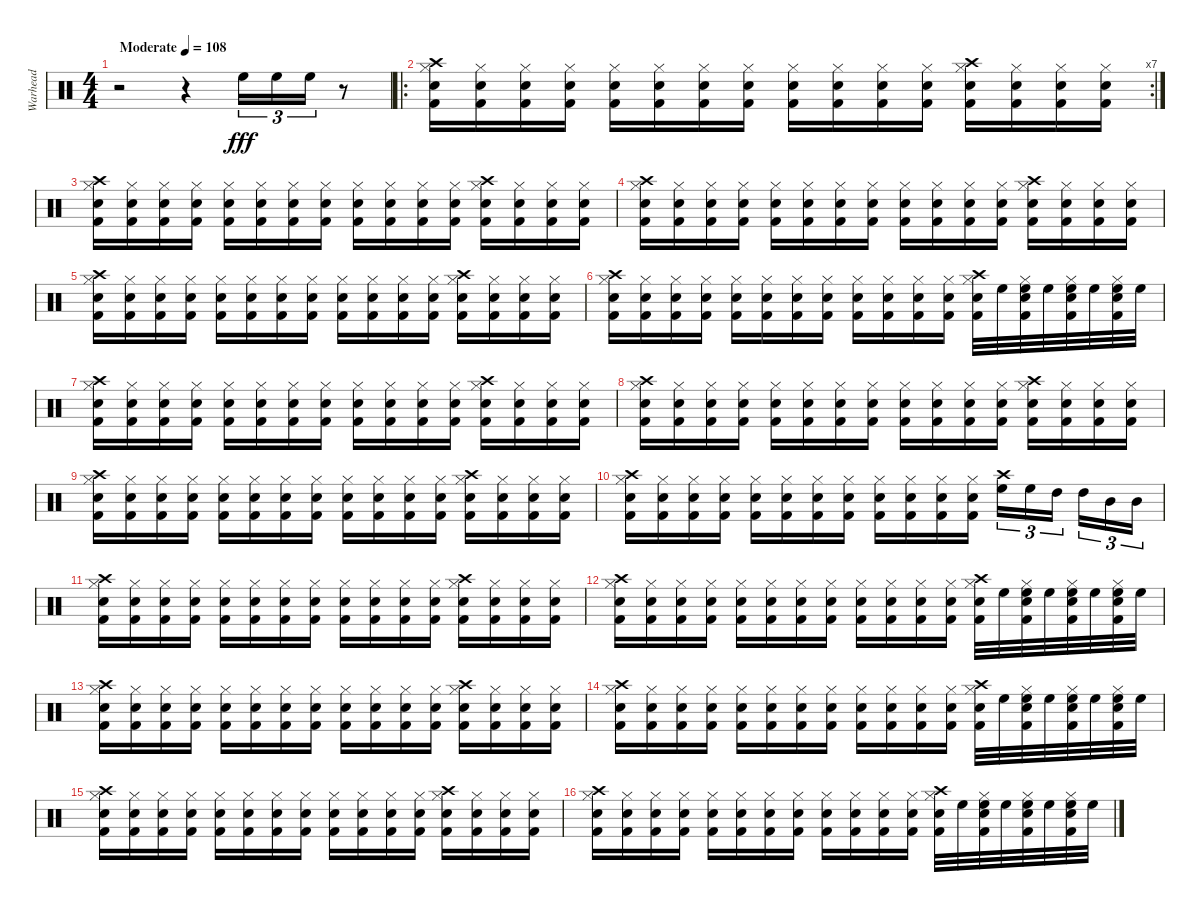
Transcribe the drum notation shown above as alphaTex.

\track ("Warhead" "Warhead") {instrument percussion}
\staff {score}
\articulation defaults
\ts (4 4)
\tempo (108 "Moderate")
\tempo 115
\tempo (108 "Moderate")
\clef neutral
\ks c
r.2{dy fff} r.4 "High Floor Tom (hit)".16{tu (3 2)} "High Floor Tom (hit)".16{tu (3 2)} "High Floor Tom (hit)".16{tu (3 2)} r.8 |
\ro
\rc 7
("Kick (hit) 2" "Electric Snare (hit)" "Crash high (hit)" "Hi-Hat (closed)").16 ("Kick (hit) 2" "Electric Snare (hit)" "Hi-Hat (closed)").16 ("Kick (hit) 2" "Electric Snare (hit)" "Hi-Hat (closed)").16 ("Kick (hit) 2" "Electric Snare (hit)" "Hi-Hat (closed)").16 ("Kick (hit) 2" "Electric Snare (hit)" "Hi-Hat (closed)").16 ("Kick (hit) 2" "Electric Snare (hit)" "Hi-Hat (closed)").16 ("Kick (hit) 2" "Electric Snare (hit)" "Hi-Hat (closed)").16 ("Kick (hit) 2" "Electric Snare (hit)" "Hi-Hat (closed)").16 ("Kick (hit) 2" "Electric Snare (hit)" "Hi-Hat (closed)").16 ("Kick (hit) 2" "Electric Snare (hit)" "Hi-Hat (closed)").16 ("Kick (hit) 2" "Electric Snare (hit)" "Hi-Hat (closed)").16 ("Kick (hit) 2" "Electric Snare (hit)" "Hi-Hat (closed)").16 ("Kick (hit) 2" "Electric Snare (hit)" "Crash high (hit)" "Hi-Hat (closed)").16 ("Kick (hit) 2" "Electric Snare (hit)" "Hi-Hat (closed)").16 ("Kick (hit) 2" "Electric Snare (hit)" "Hi-Hat (closed)").16 ("Kick (hit) 2" "Electric Snare (hit)" "Hi-Hat (closed)").16 |
("Kick (hit) 2" "Electric Snare (hit)" "Crash high (hit)" "Hi-Hat (closed)").16 ("Kick (hit) 2" "Electric Snare (hit)" "Hi-Hat (closed)").16 ("Kick (hit) 2" "Electric Snare (hit)" "Hi-Hat (closed)").16 ("Kick (hit) 2" "Electric Snare (hit)" "Hi-Hat (closed)").16 ("Kick (hit) 2" "Electric Snare (hit)" "Hi-Hat (closed)").16 ("Kick (hit) 2" "Electric Snare (hit)" "Hi-Hat (closed)").16 ("Kick (hit) 2" "Electric Snare (hit)" "Hi-Hat (closed)").16 ("Kick (hit) 2" "Electric Snare (hit)" "Hi-Hat (closed)").16 ("Kick (hit) 2" "Electric Snare (hit)" "Hi-Hat (closed)").16 ("Kick (hit) 2" "Electric Snare (hit)" "Hi-Hat (closed)").16 ("Kick (hit) 2" "Electric Snare (hit)" "Hi-Hat (closed)").16 ("Kick (hit) 2" "Electric Snare (hit)" "Hi-Hat (closed)").16 ("Kick (hit) 2" "Electric Snare (hit)" "Crash high (hit)" "Hi-Hat (closed)").16 ("Kick (hit) 2" "Electric Snare (hit)" "Hi-Hat (closed)").16 ("Kick (hit) 2" "Electric Snare (hit)" "Hi-Hat (closed)").16 ("Kick (hit) 2" "Electric Snare (hit)" "Hi-Hat (closed)").16 |
("Kick (hit) 2" "Electric Snare (hit)" "Crash high (hit)" "Hi-Hat (closed)").16 ("Kick (hit) 2" "Electric Snare (hit)" "Hi-Hat (closed)").16 ("Kick (hit) 2" "Electric Snare (hit)" "Hi-Hat (closed)").16 ("Kick (hit) 2" "Electric Snare (hit)" "Hi-Hat (closed)").16 ("Kick (hit) 2" "Electric Snare (hit)" "Hi-Hat (closed)").16 ("Kick (hit) 2" "Electric Snare (hit)" "Hi-Hat (closed)").16 ("Kick (hit) 2" "Electric Snare (hit)" "Hi-Hat (closed)").16 ("Kick (hit) 2" "Electric Snare (hit)" "Hi-Hat (closed)").16 ("Kick (hit) 2" "Electric Snare (hit)" "Hi-Hat (closed)").16 ("Kick (hit) 2" "Electric Snare (hit)" "Hi-Hat (closed)").16 ("Kick (hit) 2" "Electric Snare (hit)" "Hi-Hat (closed)").16 ("Kick (hit) 2" "Electric Snare (hit)" "Hi-Hat (closed)").16 ("Kick (hit) 2" "Electric Snare (hit)" "Crash high (hit)" "Hi-Hat (closed)").16 ("Kick (hit) 2" "Electric Snare (hit)" "Hi-Hat (closed)").16 ("Kick (hit) 2" "Electric Snare (hit)" "Hi-Hat (closed)").16 ("Kick (hit) 2" "Electric Snare (hit)" "Hi-Hat (closed)").16 |
("Kick (hit) 2" "Electric Snare (hit)" "Crash high (hit)" "Hi-Hat (closed)").16 ("Kick (hit) 2" "Electric Snare (hit)" "Hi-Hat (closed)").16 ("Kick (hit) 2" "Electric Snare (hit)" "Hi-Hat (closed)").16 ("Kick (hit) 2" "Electric Snare (hit)" "Hi-Hat (closed)").16 ("Kick (hit) 2" "Electric Snare (hit)" "Hi-Hat (closed)").16 ("Kick (hit) 2" "Electric Snare (hit)" "Hi-Hat (closed)").16 ("Kick (hit) 2" "Electric Snare (hit)" "Hi-Hat (closed)").16 ("Kick (hit) 2" "Electric Snare (hit)" "Hi-Hat (closed)").16 ("Kick (hit) 2" "Electric Snare (hit)" "Hi-Hat (closed)").16 ("Kick (hit) 2" "Electric Snare (hit)" "Hi-Hat (closed)").16 ("Kick (hit) 2" "Electric Snare (hit)" "Hi-Hat (closed)").16 ("Kick (hit) 2" "Electric Snare (hit)" "Hi-Hat (closed)").16 ("Kick (hit) 2" "Electric Snare (hit)" "Crash high (hit)" "Hi-Hat (closed)").16 ("Kick (hit) 2" "Electric Snare (hit)" "Hi-Hat (closed)").16 ("Kick (hit) 2" "Electric Snare (hit)" "Hi-Hat (closed)").16 ("Kick (hit) 2" "Electric Snare (hit)" "Hi-Hat (closed)").16 |
("Kick (hit) 2" "Electric Snare (hit)" "Crash high (hit)" "Hi-Hat (closed)").16 ("Kick (hit) 2" "Electric Snare (hit)" "Hi-Hat (closed)").16 ("Kick (hit) 2" "Electric Snare (hit)" "Hi-Hat (closed)").16 ("Kick (hit) 2" "Electric Snare (hit)" "Hi-Hat (closed)").16 ("Kick (hit) 2" "Electric Snare (hit)" "Hi-Hat (closed)").16 ("Kick (hit) 2" "Electric Snare (hit)" "Hi-Hat (closed)").16 ("Kick (hit) 2" "Electric Snare (hit)" "Hi-Hat (closed)").16 ("Kick (hit) 2" "Electric Snare (hit)" "Hi-Hat (closed)").16 ("Kick (hit) 2" "Electric Snare (hit)" "Hi-Hat (closed)").16 ("Kick (hit) 2" "Electric Snare (hit)" "Hi-Hat (closed)").16 ("Kick (hit) 2" "Electric Snare (hit)" "Hi-Hat (closed)").16 ("Kick (hit) 2" "Electric Snare (hit)" "Hi-Hat (closed)").16 ("Kick (hit) 2" "Electric Snare (hit)" "Crash high (hit)" "Hi-Hat (closed)").32 "High Floor Tom (hit)".32 ("Kick (hit) 2" "Electric Snare (hit)" "Hi-Hat (closed)" "High Floor Tom (hit)").32 "High Floor Tom (hit)".32 ("Kick (hit) 2" "Electric Snare (hit)" "Hi-Hat (closed)" "High Floor Tom (hit)").32 "High Floor Tom (hit)".32 ("Kick (hit) 2" "Electric Snare (hit)" "Hi-Hat (closed)" "High Floor Tom (hit)").32 "High Floor Tom (hit)".32 |
("Kick (hit) 2" "Electric Snare (hit)" "Crash high (hit)" "Hi-Hat (closed)").16 ("Kick (hit) 2" "Electric Snare (hit)" "Hi-Hat (closed)").16 ("Kick (hit) 2" "Electric Snare (hit)" "Hi-Hat (closed)").16 ("Kick (hit) 2" "Electric Snare (hit)" "Hi-Hat (closed)").16 ("Kick (hit) 2" "Electric Snare (hit)" "Hi-Hat (closed)").16 ("Kick (hit) 2" "Electric Snare (hit)" "Hi-Hat (closed)").16 ("Kick (hit) 2" "Electric Snare (hit)" "Hi-Hat (closed)").16 ("Kick (hit) 2" "Electric Snare (hit)" "Hi-Hat (closed)").16 ("Kick (hit) 2" "Electric Snare (hit)" "Hi-Hat (closed)").16 ("Kick (hit) 2" "Electric Snare (hit)" "Hi-Hat (closed)").16 ("Kick (hit) 2" "Electric Snare (hit)" "Hi-Hat (closed)").16 ("Kick (hit) 2" "Electric Snare (hit)" "Hi-Hat (closed)").16 ("Kick (hit) 2" "Electric Snare (hit)" "Crash high (hit)" "Hi-Hat (closed)").16 ("Kick (hit) 2" "Electric Snare (hit)" "Hi-Hat (closed)").16 ("Kick (hit) 2" "Electric Snare (hit)" "Hi-Hat (closed)").16 ("Kick (hit) 2" "Electric Snare (hit)" "Hi-Hat (closed)").16 |
("Kick (hit) 2" "Electric Snare (hit)" "Crash high (hit)" "Hi-Hat (closed)").16 ("Kick (hit) 2" "Electric Snare (hit)" "Hi-Hat (closed)").16 ("Kick (hit) 2" "Electric Snare (hit)" "Hi-Hat (closed)").16 ("Kick (hit) 2" "Electric Snare (hit)" "Hi-Hat (closed)").16 ("Kick (hit) 2" "Electric Snare (hit)" "Hi-Hat (closed)").16 ("Kick (hit) 2" "Electric Snare (hit)" "Hi-Hat (closed)").16 ("Kick (hit) 2" "Electric Snare (hit)" "Hi-Hat (closed)").16 ("Kick (hit) 2" "Electric Snare (hit)" "Hi-Hat (closed)").16 ("Kick (hit) 2" "Electric Snare (hit)" "Hi-Hat (closed)").16 ("Kick (hit) 2" "Electric Snare (hit)" "Hi-Hat (closed)").16 ("Kick (hit) 2" "Electric Snare (hit)" "Hi-Hat (closed)").16 ("Kick (hit) 2" "Electric Snare (hit)" "Hi-Hat (closed)").16 ("Kick (hit) 2" "Electric Snare (hit)" "Crash high (hit)" "Hi-Hat (closed)").16 ("Kick (hit) 2" "Electric Snare (hit)" "Hi-Hat (closed)").16 ("Kick (hit) 2" "Electric Snare (hit)" "Hi-Hat (closed)").16 ("Kick (hit) 2" "Electric Snare (hit)" "Hi-Hat (closed)").16 |
("Kick (hit) 2" "Electric Snare (hit)" "Crash high (hit)" "Hi-Hat (closed)").16 ("Kick (hit) 2" "Electric Snare (hit)" "Hi-Hat (closed)").16 ("Kick (hit) 2" "Electric Snare (hit)" "Hi-Hat (closed)").16 ("Kick (hit) 2" "Electric Snare (hit)" "Hi-Hat (closed)").16 ("Kick (hit) 2" "Electric Snare (hit)" "Hi-Hat (closed)").16 ("Kick (hit) 2" "Electric Snare (hit)" "Hi-Hat (closed)").16 ("Kick (hit) 2" "Electric Snare (hit)" "Hi-Hat (closed)").16 ("Kick (hit) 2" "Electric Snare (hit)" "Hi-Hat (closed)").16 ("Kick (hit) 2" "Electric Snare (hit)" "Hi-Hat (closed)").16 ("Kick (hit) 2" "Electric Snare (hit)" "Hi-Hat (closed)").16 ("Kick (hit) 2" "Electric Snare (hit)" "Hi-Hat (closed)").16 ("Kick (hit) 2" "Electric Snare (hit)" "Hi-Hat (closed)").16 ("Kick (hit) 2" "Electric Snare (hit)" "Crash high (hit)" "Hi-Hat (closed)").16 ("Kick (hit) 2" "Electric Snare (hit)" "Hi-Hat (closed)").16 ("Kick (hit) 2" "Electric Snare (hit)" "Hi-Hat (closed)").16 ("Kick (hit) 2" "Electric Snare (hit)" "Hi-Hat (closed)").16 |
("Kick (hit) 2" "Electric Snare (hit)" "Crash high (hit)" "Hi-Hat (closed)").16 ("Kick (hit) 2" "Electric Snare (hit)" "Hi-Hat (closed)").16 ("Kick (hit) 2" "Electric Snare (hit)" "Hi-Hat (closed)").16 ("Kick (hit) 2" "Electric Snare (hit)" "Hi-Hat (closed)").16 ("Kick (hit) 2" "Electric Snare (hit)" "Hi-Hat (closed)").16 ("Kick (hit) 2" "Electric Snare (hit)" "Hi-Hat (closed)").16 ("Kick (hit) 2" "Electric Snare (hit)" "Hi-Hat (closed)").16 ("Kick (hit) 2" "Electric Snare (hit)" "Hi-Hat (closed)").16 ("Kick (hit) 2" "Electric Snare (hit)" "Hi-Hat (closed)").16 ("Kick (hit) 2" "Electric Snare (hit)" "Hi-Hat (closed)").16 ("Kick (hit) 2" "Electric Snare (hit)" "Hi-Hat (closed)").16 ("Kick (hit) 2" "Electric Snare (hit)" "Hi-Hat (closed)").16 ("High Floor Tom (hit)" "Crash high (hit)").16{tu (3 2)} "High Floor Tom (hit)".16{tu (3 2)} "High Tom (hit)".16{tu (3 2) beam splitsecondary} "High Tom (hit)".16{tu (3 2)} "Mid Tom (hit)".16{tu (3 2)} "Mid Tom (hit)".16{tu (3 2)} |
("Kick (hit) 2" "Electric Snare (hit)" "Crash high (hit)" "Hi-Hat (closed)").16 ("Kick (hit) 2" "Electric Snare (hit)" "Hi-Hat (closed)").16 ("Kick (hit) 2" "Electric Snare (hit)" "Hi-Hat (closed)").16 ("Kick (hit) 2" "Electric Snare (hit)" "Hi-Hat (closed)").16 ("Kick (hit) 2" "Electric Snare (hit)" "Hi-Hat (closed)").16 ("Kick (hit) 2" "Electric Snare (hit)" "Hi-Hat (closed)").16 ("Kick (hit) 2" "Electric Snare (hit)" "Hi-Hat (closed)").16 ("Kick (hit) 2" "Electric Snare (hit)" "Hi-Hat (closed)").16 ("Kick (hit) 2" "Electric Snare (hit)" "Hi-Hat (closed)").16 ("Kick (hit) 2" "Electric Snare (hit)" "Hi-Hat (closed)").16 ("Kick (hit) 2" "Electric Snare (hit)" "Hi-Hat (closed)").16 ("Kick (hit) 2" "Electric Snare (hit)" "Hi-Hat (closed)").16 ("Kick (hit) 2" "Electric Snare (hit)" "Crash high (hit)" "Hi-Hat (closed)").16 ("Kick (hit) 2" "Electric Snare (hit)" "Hi-Hat (closed)").16 ("Kick (hit) 2" "Electric Snare (hit)" "Hi-Hat (closed)").16 ("Kick (hit) 2" "Electric Snare (hit)" "Hi-Hat (closed)").16 |
("Kick (hit) 2" "Electric Snare (hit)" "Crash high (hit)" "Hi-Hat (closed)").16 ("Kick (hit) 2" "Electric Snare (hit)" "Hi-Hat (closed)").16 ("Kick (hit) 2" "Electric Snare (hit)" "Hi-Hat (closed)").16 ("Kick (hit) 2" "Electric Snare (hit)" "Hi-Hat (closed)").16 ("Kick (hit) 2" "Electric Snare (hit)" "Hi-Hat (closed)").16 ("Kick (hit) 2" "Electric Snare (hit)" "Hi-Hat (closed)").16 ("Kick (hit) 2" "Electric Snare (hit)" "Hi-Hat (closed)").16 ("Kick (hit) 2" "Electric Snare (hit)" "Hi-Hat (closed)").16 ("Kick (hit) 2" "Electric Snare (hit)" "Hi-Hat (closed)").16 ("Kick (hit) 2" "Electric Snare (hit)" "Hi-Hat (closed)").16 ("Kick (hit) 2" "Electric Snare (hit)" "Hi-Hat (closed)").16 ("Kick (hit) 2" "Electric Snare (hit)" "Hi-Hat (closed)").16 ("Kick (hit) 2" "Electric Snare (hit)" "Crash high (hit)" "Hi-Hat (closed)").32 "High Floor Tom (hit)".32 ("Kick (hit) 2" "Electric Snare (hit)" "Hi-Hat (closed)" "High Floor Tom (hit)").32 "High Floor Tom (hit)".32 ("Kick (hit) 2" "Electric Snare (hit)" "Hi-Hat (closed)" "High Floor Tom (hit)").32 "High Floor Tom (hit)".32 ("Kick (hit) 2" "Electric Snare (hit)" "Hi-Hat (closed)" "High Floor Tom (hit)").32 "High Floor Tom (hit)".32 |
("Kick (hit) 2" "Electric Snare (hit)" "Crash high (hit)" "Hi-Hat (closed)").16 ("Kick (hit) 2" "Electric Snare (hit)" "Hi-Hat (closed)").16 ("Kick (hit) 2" "Electric Snare (hit)" "Hi-Hat (closed)").16 ("Kick (hit) 2" "Electric Snare (hit)" "Hi-Hat (closed)").16 ("Kick (hit) 2" "Electric Snare (hit)" "Hi-Hat (closed)").16 ("Kick (hit) 2" "Electric Snare (hit)" "Hi-Hat (closed)").16 ("Kick (hit) 2" "Electric Snare (hit)" "Hi-Hat (closed)").16 ("Kick (hit) 2" "Electric Snare (hit)" "Hi-Hat (closed)").16 ("Kick (hit) 2" "Electric Snare (hit)" "Hi-Hat (closed)").16 ("Kick (hit) 2" "Electric Snare (hit)" "Hi-Hat (closed)").16 ("Kick (hit) 2" "Electric Snare (hit)" "Hi-Hat (closed)").16 ("Kick (hit) 2" "Electric Snare (hit)" "Hi-Hat (closed)").16 ("Kick (hit) 2" "Electric Snare (hit)" "Crash high (hit)" "Hi-Hat (closed)").16 ("Kick (hit) 2" "Electric Snare (hit)" "Hi-Hat (closed)").16 ("Kick (hit) 2" "Electric Snare (hit)" "Hi-Hat (closed)").16 ("Kick (hit) 2" "Electric Snare (hit)" "Hi-Hat (closed)").16 |
("Kick (hit) 2" "Electric Snare (hit)" "Crash high (hit)" "Hi-Hat (closed)").16 ("Kick (hit) 2" "Electric Snare (hit)" "Hi-Hat (closed)").16 ("Kick (hit) 2" "Electric Snare (hit)" "Hi-Hat (closed)").16 ("Kick (hit) 2" "Electric Snare (hit)" "Hi-Hat (closed)").16 ("Kick (hit) 2" "Electric Snare (hit)" "Hi-Hat (closed)").16 ("Kick (hit) 2" "Electric Snare (hit)" "Hi-Hat (closed)").16 ("Kick (hit) 2" "Electric Snare (hit)" "Hi-Hat (closed)").16 ("Kick (hit) 2" "Electric Snare (hit)" "Hi-Hat (closed)").16 ("Kick (hit) 2" "Electric Snare (hit)" "Hi-Hat (closed)").16 ("Kick (hit) 2" "Electric Snare (hit)" "Hi-Hat (closed)").16 ("Kick (hit) 2" "Electric Snare (hit)" "Hi-Hat (closed)").16 ("Kick (hit) 2" "Electric Snare (hit)" "Hi-Hat (closed)").16 ("Kick (hit) 2" "Electric Snare (hit)" "Crash high (hit)" "Hi-Hat (closed)").32 "High Floor Tom (hit)".32 ("Kick (hit) 2" "Electric Snare (hit)" "Hi-Hat (closed)" "High Floor Tom (hit)").32 "High Floor Tom (hit)".32 ("Kick (hit) 2" "Electric Snare (hit)" "Hi-Hat (closed)" "High Floor Tom (hit)").32 "High Floor Tom (hit)".32 ("Kick (hit) 2" "Electric Snare (hit)" "Hi-Hat (closed)" "High Floor Tom (hit)").32 "High Floor Tom (hit)".32 |
("Kick (hit) 2" "Electric Snare (hit)" "Crash high (hit)" "Hi-Hat (closed)").16 ("Kick (hit) 2" "Electric Snare (hit)" "Hi-Hat (closed)").16 ("Kick (hit) 2" "Electric Snare (hit)" "Hi-Hat (closed)").16 ("Kick (hit) 2" "Electric Snare (hit)" "Hi-Hat (closed)").16 ("Kick (hit) 2" "Electric Snare (hit)" "Hi-Hat (closed)").16 ("Kick (hit) 2" "Electric Snare (hit)" "Hi-Hat (closed)").16 ("Kick (hit) 2" "Electric Snare (hit)" "Hi-Hat (closed)").16 ("Kick (hit) 2" "Electric Snare (hit)" "Hi-Hat (closed)").16 ("Kick (hit) 2" "Electric Snare (hit)" "Hi-Hat (closed)").16 ("Kick (hit) 2" "Electric Snare (hit)" "Hi-Hat (closed)").16 ("Kick (hit) 2" "Electric Snare (hit)" "Hi-Hat (closed)").16 ("Kick (hit) 2" "Electric Snare (hit)" "Hi-Hat (closed)").16 ("Kick (hit) 2" "Electric Snare (hit)" "Crash high (hit)" "Hi-Hat (closed)").16 ("Kick (hit) 2" "Electric Snare (hit)" "Hi-Hat (closed)").16 ("Kick (hit) 2" "Electric Snare (hit)" "Hi-Hat (closed)").16 ("Kick (hit) 2" "Electric Snare (hit)" "Hi-Hat (closed)").16 |
("Kick (hit) 2" "Electric Snare (hit)" "Crash high (hit)" "Hi-Hat (closed)").16 ("Kick (hit) 2" "Electric Snare (hit)" "Hi-Hat (closed)").16 ("Kick (hit) 2" "Electric Snare (hit)" "Hi-Hat (closed)").16 ("Kick (hit) 2" "Electric Snare (hit)" "Hi-Hat (closed)").16 ("Kick (hit) 2" "Electric Snare (hit)" "Hi-Hat (closed)").16 ("Kick (hit) 2" "Electric Snare (hit)" "Hi-Hat (closed)").16 ("Kick (hit) 2" "Electric Snare (hit)" "Hi-Hat (closed)").16 ("Kick (hit) 2" "Electric Snare (hit)" "Hi-Hat (closed)").16 ("Kick (hit) 2" "Electric Snare (hit)" "Hi-Hat (closed)").16 ("Kick (hit) 2" "Electric Snare (hit)" "Hi-Hat (closed)").16 ("Kick (hit) 2" "Electric Snare (hit)" "Hi-Hat (closed)").16 ("Kick (hit) 2" "Electric Snare (hit)" "Hi-Hat (closed)").16 ("Kick (hit) 2" "Electric Snare (hit)" "Crash high (hit)" "Hi-Hat (closed)").32 "High Floor Tom (hit)".32 ("Kick (hit) 2" "Electric Snare (hit)" "Hi-Hat (closed)" "High Floor Tom (hit)").32 "High Floor Tom (hit)".32 ("Kick (hit) 2" "Electric Snare (hit)" "Hi-Hat (closed)" "High Floor Tom (hit)").32 "High Floor Tom (hit)".32 ("Kick (hit) 2" "Electric Snare (hit)" "Hi-Hat (closed)" "High Floor Tom (hit)").32 "High Floor Tom (hit)".32
